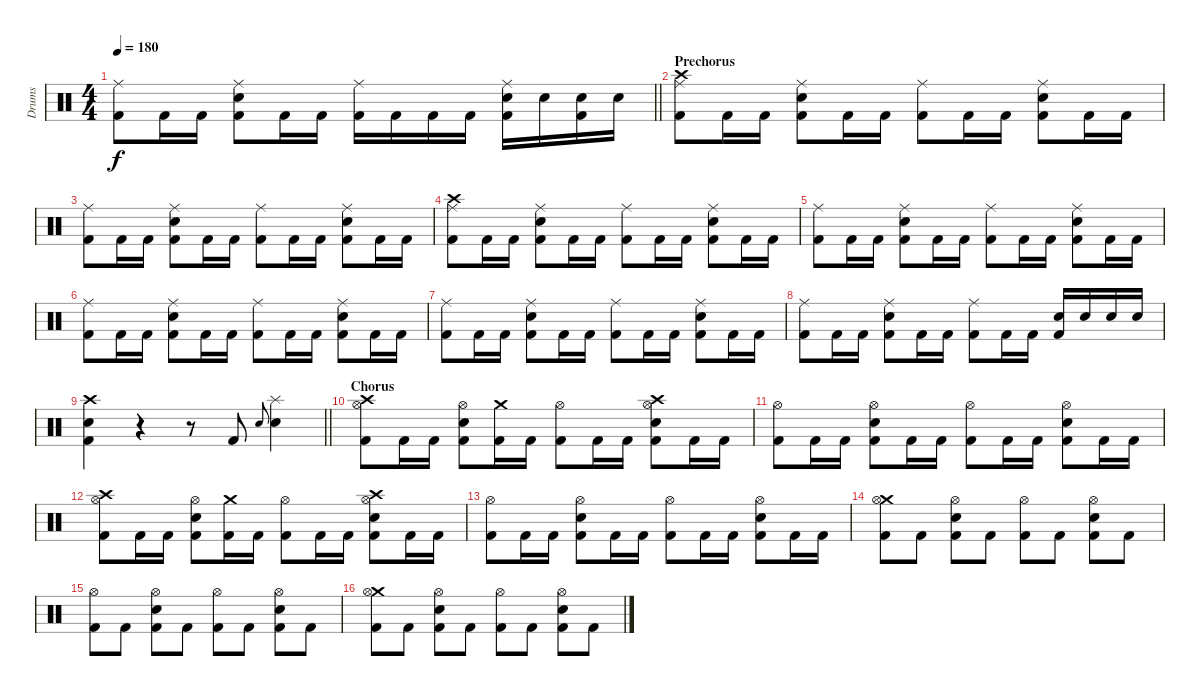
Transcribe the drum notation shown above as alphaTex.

\track ("Drums" "Drums") {instrument percussion}
\staff {score}
\articulation defaults
\ts (4 4)
\tempo 180
\clef neutral
\barLineRight lightlight
\ks c
("Ride (middle)" "Kick (hit) 2").8{dy f} "Kick (hit) 2".16 "Kick (hit) 2".16 ("Ride (middle)" "Snare (hit) 2" "Kick (hit) 2").8 "Kick (hit) 2".16 "Kick (hit) 2".16 ("Ride (middle)" "Kick (hit) 2").16 "Kick (hit) 2".16 "Kick (hit) 2".16 "Kick (hit) 2".16 ("Ride (middle)" "Snare (hit) 2" "Kick (hit) 2").16 "Snare (hit) 2".16 ("Snare (hit) 2" "Kick (hit) 2").16 "Snare (hit) 2".16 |
\section ("" "Prechorus")
("Crash high (hit)" "Ride (middle)" "Kick (hit) 2").8 "Kick (hit) 2".16 "Kick (hit) 2".16 ("Ride (middle)" "Snare (hit) 2" "Kick (hit) 2").8 "Kick (hit) 2".16 "Kick (hit) 2".16 ("Ride (middle)" "Kick (hit) 2").8 "Kick (hit) 2".16 "Kick (hit) 2".16 ("Ride (middle)" "Snare (hit) 2" "Kick (hit) 2").8 "Kick (hit) 2".16 "Kick (hit) 2".16 |
("Ride (middle)" "Kick (hit) 2").8 "Kick (hit) 2".16 "Kick (hit) 2".16 ("Ride (middle)" "Snare (hit) 2" "Kick (hit) 2").8 "Kick (hit) 2".16 "Kick (hit) 2".16 ("Ride (middle)" "Kick (hit) 2").8 "Kick (hit) 2".16 "Kick (hit) 2".16 ("Ride (middle)" "Snare (hit) 2" "Kick (hit) 2").8 "Kick (hit) 2".16 "Kick (hit) 2".16 |
("Crash high (hit)" "Ride (middle)" "Kick (hit) 2").8 "Kick (hit) 2".16 "Kick (hit) 2".16 ("Ride (middle)" "Snare (hit) 2" "Kick (hit) 2").8 "Kick (hit) 2".16 "Kick (hit) 2".16 ("Ride (middle)" "Kick (hit) 2").8 "Kick (hit) 2".16 "Kick (hit) 2".16 ("Ride (middle)" "Snare (hit) 2" "Kick (hit) 2").8 "Kick (hit) 2".16 "Kick (hit) 2".16 |
("Ride (middle)" "Kick (hit) 2").8 "Kick (hit) 2".16 "Kick (hit) 2".16 ("Ride (middle)" "Snare (hit) 2" "Kick (hit) 2").8 "Kick (hit) 2".16 "Kick (hit) 2".16 ("Ride (middle)" "Kick (hit) 2").8 "Kick (hit) 2".16 "Kick (hit) 2".16 ("Ride (middle)" "Snare (hit) 2" "Kick (hit) 2").8 "Kick (hit) 2".16 "Kick (hit) 2".16 |
("Ride (middle)" "Kick (hit) 2").8 "Kick (hit) 2".16 "Kick (hit) 2".16 ("Ride (middle)" "Snare (hit) 2" "Kick (hit) 2").8 "Kick (hit) 2".16 "Kick (hit) 2".16 ("Ride (middle)" "Kick (hit) 2").8 "Kick (hit) 2".16 "Kick (hit) 2".16 ("Ride (middle)" "Snare (hit) 2" "Kick (hit) 2").8 "Kick (hit) 2".16 "Kick (hit) 2".16 |
("Ride (middle)" "Kick (hit) 2").8 "Kick (hit) 2".16 "Kick (hit) 2".16 ("Ride (middle)" "Snare (hit) 2" "Kick (hit) 2").8 "Kick (hit) 2".16 "Kick (hit) 2".16 ("Ride (middle)" "Kick (hit) 2").8 "Kick (hit) 2".16 "Kick (hit) 2".16 ("Ride (middle)" "Snare (hit) 2" "Kick (hit) 2").8 "Kick (hit) 2".16 "Kick (hit) 2".16 |
("Ride (middle)" "Kick (hit) 2").8 "Kick (hit) 2".16 "Kick (hit) 2".16 ("Ride (middle)" "Snare (hit) 2" "Kick (hit) 2").8 "Kick (hit) 2".16 "Kick (hit) 2".16 ("Ride (middle)" "Kick (hit) 2").8 "Kick (hit) 2".16 "Kick (hit) 2".16 ("Snare (hit) 2" "Kick (hit) 2").16 "Snare (hit) 2".16 "Snare (hit) 2".16 "Snare (hit) 2".16 |
\barLineRight lightlight
("Crash high (hit)" "Snare (hit) 2" "Kick (hit) 2").4 r.4 r.8 "Kick (hit) 2".8 "Snare (hit) 2".8{gr onbeat} ("Splash (hit)" "Snare (hit) 2").4 |
\section ("" "Chorus")
("Crash high (hit)" "Hi-Hat (open)" "Kick (hit) 2").8 "Kick (hit) 2".16 "Kick (hit) 2".16 ("Hi-Hat (open)" "Snare (hit) 2" "Kick (hit) 2").8 ("Crash medium (hit)" "Kick (hit) 2").16 "Kick (hit) 2".16 ("Hi-Hat (open)" "Kick (hit) 2").8 "Kick (hit) 2".16 "Kick (hit) 2".16 ("Crash high (hit)" "Hi-Hat (open)" "Snare (hit) 2" "Kick (hit) 2").8 "Kick (hit) 2".16 "Kick (hit) 2".16 |
("Hi-Hat (open)" "Kick (hit) 2").8 "Kick (hit) 2".16 "Kick (hit) 2".16 ("Hi-Hat (open)" "Snare (hit) 2" "Kick (hit) 2").8 "Kick (hit) 2".16 "Kick (hit) 2".16 ("Hi-Hat (open)" "Kick (hit) 2").8 "Kick (hit) 2".16 "Kick (hit) 2".16 ("Hi-Hat (open)" "Snare (hit) 2" "Kick (hit) 2").8 "Kick (hit) 2".16 "Kick (hit) 2".16 |
("Crash high (hit)" "Hi-Hat (open)" "Kick (hit) 2").8 "Kick (hit) 2".16 "Kick (hit) 2".16 ("Hi-Hat (open)" "Snare (hit) 2" "Kick (hit) 2").8 ("Crash medium (hit)" "Kick (hit) 2").16 "Kick (hit) 2".16 ("Hi-Hat (open)" "Kick (hit) 2").8 "Kick (hit) 2".16 "Kick (hit) 2".16 ("Crash high (hit)" "Hi-Hat (open)" "Snare (hit) 2" "Kick (hit) 2").8 "Kick (hit) 2".16 "Kick (hit) 2".16 |
("Hi-Hat (open)" "Kick (hit) 2").8 "Kick (hit) 2".16 "Kick (hit) 2".16 ("Hi-Hat (open)" "Snare (hit) 2" "Kick (hit) 2").8 "Kick (hit) 2".16 "Kick (hit) 2".16 ("Hi-Hat (open)" "Kick (hit) 2").8 "Kick (hit) 2".16 "Kick (hit) 2".16 ("Hi-Hat (open)" "Snare (hit) 2" "Kick (hit) 2").8 "Kick (hit) 2".16 "Kick (hit) 2".16 |
("Crash medium (hit)" "Hi-Hat (open)" "Kick (hit) 2").8 "Kick (hit) 2".8 ("Hi-Hat (open)" "Snare (hit) 2" "Kick (hit) 2").8 "Kick (hit) 2".8 ("Hi-Hat (open)" "Kick (hit) 2").8 "Kick (hit) 2".8 ("Hi-Hat (open)" "Snare (hit) 2" "Kick (hit) 2").8 "Kick (hit) 2".8 |
("Hi-Hat (open)" "Kick (hit) 2").8 "Kick (hit) 2".8 ("Hi-Hat (open)" "Snare (hit) 2" "Kick (hit) 2").8 "Kick (hit) 2".8 ("Hi-Hat (open)" "Kick (hit) 2").8 "Kick (hit) 2".8 ("Hi-Hat (open)" "Snare (hit) 2" "Kick (hit) 2").8 "Kick (hit) 2".8 |
("Crash medium (hit)" "Hi-Hat (open)" "Kick (hit) 2").8 "Kick (hit) 2".8 ("Hi-Hat (open)" "Snare (hit) 2" "Kick (hit) 2").8 "Kick (hit) 2".8 ("Hi-Hat (open)" "Kick (hit) 2").8 "Kick (hit) 2".8 ("Hi-Hat (open)" "Snare (hit) 2" "Kick (hit) 2").8 "Kick (hit) 2".8
